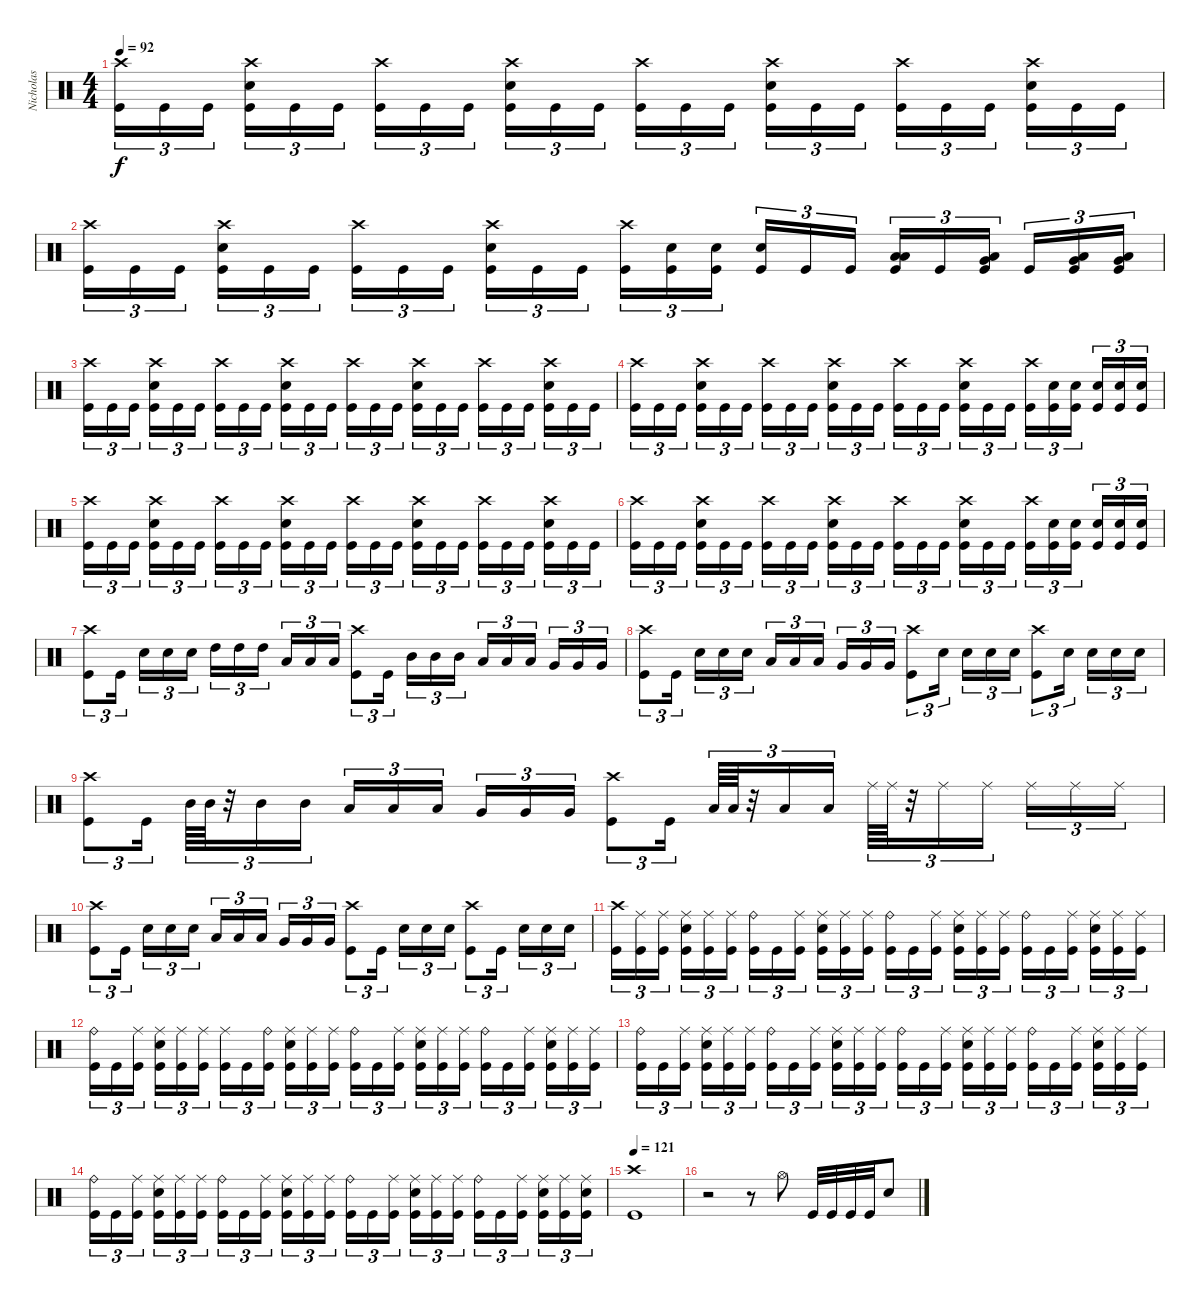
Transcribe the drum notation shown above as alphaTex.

\track ("Nicholas" "Nicholas") {instrument percussion}
\staff {score}
\articulation defaults
\ts (4 4)
\tempo 92
\clef neutral
\ks c
("Crash high (hit)" "Kick (hit)").16{tu (3 2) dy f} "Kick (hit)".16{tu (3 2)} "Kick (hit)".16{tu (3 2)} ("Crash high (hit)" "Electric Snare (hit)" "Kick (hit)").16{tu (3 2)} "Kick (hit)".16{tu (3 2)} "Kick (hit)".16{tu (3 2)} ("Crash high (hit)" "Kick (hit)").16{tu (3 2)} "Kick (hit)".16{tu (3 2)} "Kick (hit)".16{tu (3 2)} ("Crash high (hit)" "Electric Snare (hit)" "Kick (hit)").16{tu (3 2)} "Kick (hit)".16{tu (3 2)} "Kick (hit)".16{tu (3 2)} ("Crash high (hit)" "Kick (hit)").16{tu (3 2)} "Kick (hit)".16{tu (3 2)} "Kick (hit)".16{tu (3 2)} ("Crash high (hit)" "Electric Snare (hit)" "Kick (hit)").16{tu (3 2)} "Kick (hit)".16{tu (3 2)} "Kick (hit)".16{tu (3 2)} ("Crash high (hit)" "Kick (hit)").16{tu (3 2)} "Kick (hit)".16{tu (3 2)} "Kick (hit)".16{tu (3 2)} ("Crash high (hit)" "Electric Snare (hit)" "Kick (hit)").16{tu (3 2)} "Kick (hit)".16{tu (3 2)} "Kick (hit)".16{tu (3 2)} |
("Crash high (hit)" "Kick (hit)").16{tu (3 2)} "Kick (hit)".16{tu (3 2)} "Kick (hit)".16{tu (3 2)} ("Crash high (hit)" "Electric Snare (hit)" "Kick (hit)").16{tu (3 2)} "Kick (hit)".16{tu (3 2)} "Kick (hit)".16{tu (3 2)} ("Crash high (hit)" "Kick (hit)").16{tu (3 2)} "Kick (hit)".16{tu (3 2)} "Kick (hit)".16{tu (3 2)} ("Crash high (hit)" "Electric Snare (hit)" "Kick (hit)").16{tu (3 2)} "Kick (hit)".16{tu (3 2)} "Kick (hit)".16{tu (3 2)} ("Crash high (hit)" "Kick (hit)").16{tu (3 2)} ("Electric Snare (hit)" "Kick (hit)").16{tu (3 2)} ("Electric Snare (hit)" "Kick (hit)").16{tu (3 2)} ("Electric Snare (hit)" "Kick (hit)").16{tu (3 2)} "Kick (hit)".16{tu (3 2)} "Kick (hit)".16{tu (3 2)} ("Low Tom (hit)" "Low Tom (hit)" "Kick (hit)").16{tu (3 2) bd 60} "Kick (hit)".16{tu (3 2)} ("Low Tom (hit)" "Very Low Tom (hit)" "Kick (hit)").16{tu (3 2) bd 60} "Kick (hit)".16{tu (3 2)} ("Low Tom (hit)" "Very Low Tom (hit)" "Kick (hit)").16{tu (3 2) bd 60} ("Low Tom (hit)" "Very Low Tom (hit)" "Kick (hit)").16{tu (3 2) bd 60} |
("Crash high (hit)" "Kick (hit)").16{tu (3 2)} "Kick (hit)".16{tu (3 2)} "Kick (hit)".16{tu (3 2)} ("Crash high (hit)" "Electric Snare (hit)" "Kick (hit)").16{tu (3 2)} "Kick (hit)".16{tu (3 2)} "Kick (hit)".16{tu (3 2)} ("Crash high (hit)" "Kick (hit)").16{tu (3 2)} "Kick (hit)".16{tu (3 2)} "Kick (hit)".16{tu (3 2)} ("Crash high (hit)" "Electric Snare (hit)" "Kick (hit)").16{tu (3 2)} "Kick (hit)".16{tu (3 2)} "Kick (hit)".16{tu (3 2)} ("Crash high (hit)" "Kick (hit)").16{tu (3 2)} "Kick (hit)".16{tu (3 2)} "Kick (hit)".16{tu (3 2)} ("Crash high (hit)" "Electric Snare (hit)" "Kick (hit)").16{tu (3 2)} "Kick (hit)".16{tu (3 2)} "Kick (hit)".16{tu (3 2)} ("Crash high (hit)" "Kick (hit)").16{tu (3 2)} "Kick (hit)".16{tu (3 2)} "Kick (hit)".16{tu (3 2)} ("Crash high (hit)" "Electric Snare (hit)" "Kick (hit)").16{tu (3 2)} "Kick (hit)".16{tu (3 2)} "Kick (hit)".16{tu (3 2)} |
("Crash high (hit)" "Kick (hit)").16{tu (3 2)} "Kick (hit)".16{tu (3 2)} "Kick (hit)".16{tu (3 2)} ("Crash high (hit)" "Electric Snare (hit)" "Kick (hit)").16{tu (3 2)} "Kick (hit)".16{tu (3 2)} "Kick (hit)".16{tu (3 2)} ("Crash high (hit)" "Kick (hit)").16{tu (3 2)} "Kick (hit)".16{tu (3 2)} "Kick (hit)".16{tu (3 2)} ("Crash high (hit)" "Electric Snare (hit)" "Kick (hit)").16{tu (3 2)} "Kick (hit)".16{tu (3 2)} "Kick (hit)".16{tu (3 2)} ("Crash high (hit)" "Kick (hit)").16{tu (3 2)} "Kick (hit)".16{tu (3 2)} "Kick (hit)".16{tu (3 2)} ("Crash high (hit)" "Electric Snare (hit)" "Kick (hit)").16{tu (3 2)} "Kick (hit)".16{tu (3 2)} "Kick (hit)".16{tu (3 2)} ("Crash high (hit)" "Kick (hit)").16{tu (3 2)} ("Electric Snare (hit)" "Kick (hit)").16{tu (3 2)} ("Electric Snare (hit)" "Kick (hit)").16{tu (3 2)} ("Electric Snare (hit)" "Kick (hit)").16{tu (3 2)} ("Electric Snare (hit)" "Kick (hit)").16{tu (3 2)} ("Electric Snare (hit)" "Kick (hit)").16{tu (3 2)} |
("Crash high (hit)" "Kick (hit)").16{tu (3 2)} "Kick (hit)".16{tu (3 2)} "Kick (hit)".16{tu (3 2)} ("Crash high (hit)" "Electric Snare (hit)" "Kick (hit)").16{tu (3 2)} "Kick (hit)".16{tu (3 2)} "Kick (hit)".16{tu (3 2)} ("Crash high (hit)" "Kick (hit)").16{tu (3 2)} "Kick (hit)".16{tu (3 2)} "Kick (hit)".16{tu (3 2)} ("Crash high (hit)" "Electric Snare (hit)" "Kick (hit)").16{tu (3 2)} "Kick (hit)".16{tu (3 2)} "Kick (hit)".16{tu (3 2)} ("Crash high (hit)" "Kick (hit)").16{tu (3 2)} "Kick (hit)".16{tu (3 2)} "Kick (hit)".16{tu (3 2)} ("Crash high (hit)" "Electric Snare (hit)" "Kick (hit)").16{tu (3 2)} "Kick (hit)".16{tu (3 2)} "Kick (hit)".16{tu (3 2)} ("Crash high (hit)" "Kick (hit)").16{tu (3 2)} "Kick (hit)".16{tu (3 2)} "Kick (hit)".16{tu (3 2)} ("Crash high (hit)" "Electric Snare (hit)" "Kick (hit)").16{tu (3 2)} "Kick (hit)".16{tu (3 2)} "Kick (hit)".16{tu (3 2)} |
("Crash high (hit)" "Kick (hit)").16{tu (3 2)} "Kick (hit)".16{tu (3 2)} "Kick (hit)".16{tu (3 2)} ("Crash high (hit)" "Electric Snare (hit)" "Kick (hit)").16{tu (3 2)} "Kick (hit)".16{tu (3 2)} "Kick (hit)".16{tu (3 2)} ("Crash high (hit)" "Kick (hit)").16{tu (3 2)} "Kick (hit)".16{tu (3 2)} "Kick (hit)".16{tu (3 2)} ("Crash high (hit)" "Electric Snare (hit)" "Kick (hit)").16{tu (3 2)} "Kick (hit)".16{tu (3 2)} "Kick (hit)".16{tu (3 2)} ("Crash high (hit)" "Kick (hit)").16{tu (3 2)} "Kick (hit)".16{tu (3 2)} "Kick (hit)".16{tu (3 2)} ("Crash high (hit)" "Electric Snare (hit)" "Kick (hit)").16{tu (3 2)} "Kick (hit)".16{tu (3 2)} "Kick (hit)".16{tu (3 2)} ("Crash high (hit)" "Kick (hit)").16{tu (3 2)} ("Electric Snare (hit)" "Kick (hit)").16{tu (3 2)} ("Electric Snare (hit)" "Kick (hit)").16{tu (3 2)} ("Electric Snare (hit)" "Kick (hit)").16{tu (3 2)} ("Electric Snare (hit)" "Kick (hit)").16{tu (3 2)} ("Electric Snare (hit)" "Kick (hit)").16{tu (3 2)} |
("Crash high (hit)" "Kick (hit)").8{tu (3 2)} "Kick (hit)".16{tu (3 2)} "Electric Snare (hit)".16{tu (3 2)} "Electric Snare (hit)".16{tu (3 2)} "Electric Snare (hit)".16{tu (3 2)} "High Tom (hit)".16{tu (3 2)} "High Tom (hit)".16{tu (3 2)} "High Tom (hit)".16{tu (3 2)} "Low Tom (hit)".16{tu (3 2)} "Low Tom (hit)".16{tu (3 2)} "Low Tom (hit)".16{tu (3 2)} ("Crash high (hit)" "Kick (hit)").8{tu (3 2)} "Kick (hit)".16{tu (3 2)} "Mid Tom (hit)".16{tu (3 2)} "Mid Tom (hit)".16{tu (3 2)} "Mid Tom (hit)".16{tu (3 2)} "Low Tom (hit)".16{tu (3 2)} "Low Tom (hit)".16{tu (3 2)} "Low Tom (hit)".16{tu (3 2)} "Very Low Tom (hit)".16{tu (3 2)} "Very Low Tom (hit)".16{tu (3 2)} "Very Low Tom (hit)".16{tu (3 2)} |
("Crash high (hit)" "Kick (hit)").8{tu (3 2)} "Kick (hit)".16{tu (3 2)} "Electric Snare (hit)".16{tu (3 2)} "Electric Snare (hit)".16{tu (3 2)} "Electric Snare (hit)".16{tu (3 2)} "Low Tom (hit)".16{tu (3 2)} "Low Tom (hit)".16{tu (3 2)} "Low Tom (hit)".16{tu (3 2)} "Very Low Tom (hit)".16{tu (3 2)} "Very Low Tom (hit)".16{tu (3 2)} "Very Low Tom (hit)".16{tu (3 2)} ("Crash high (hit)" "Kick (hit)").8{tu (3 2)} "Electric Snare (hit)".16{tu (3 2)} "Electric Snare (hit)".16{tu (3 2)} "Electric Snare (hit)".16{tu (3 2)} "Electric Snare (hit)".16{tu (3 2)} ("Crash high (hit)" "Kick (hit)").8{tu (3 2)} "Electric Snare (hit)".16{tu (3 2)} "Electric Snare (hit)".16{tu (3 2)} "Electric Snare (hit)".16{tu (3 2)} "Electric Snare (hit)".16{tu (3 2)} |
("Crash high (hit)" "Kick (hit)").8{tu (3 2)} "Kick (hit)".16{tu (3 2)} "Mid Tom (hit)".64{tu (3 2)} "Mid Tom (hit)".64{tu (3 2)} r.32{tu (3 2)} "Mid Tom (hit)".16{tu (3 2)} "Mid Tom (hit)".16{tu (3 2)} "Low Tom (hit)".16{tu (3 2)} "Low Tom (hit)".16{tu (3 2)} "Low Tom (hit)".16{tu (3 2)} "Very Low Tom (hit)".16{tu (3 2)} "Very Low Tom (hit)".16{tu (3 2)} "Very Low Tom (hit)".16{tu (3 2)} ("Crash high (hit)" "Kick (hit)").8{tu (3 2)} "Kick (hit)".16{tu (3 2)} "Low Tom (hit)".64{tu (3 2)} "Low Tom (hit)".64{tu (3 2)} r.32{tu (3 2)} "Low Tom (hit)".16{tu (3 2)} "Low Tom (hit)".16{tu (3 2)} "Ride (middle)".64{tu (3 2)} "Ride (middle)".64{tu (3 2)} r.32{tu (3 2)} "Ride (middle)".16{tu (3 2)} "Ride (middle)".16{tu (3 2)} "Ride (middle)".16{tu (3 2)} "Ride (middle)".16{tu (3 2)} "Ride (middle)".16{tu (3 2)} |
("Crash high (hit)" "Kick (hit)").8{tu (3 2)} "Kick (hit)".16{tu (3 2)} "Electric Snare (hit)".16{tu (3 2)} "Electric Snare (hit)".16{tu (3 2)} "Electric Snare (hit)".16{tu (3 2)} "Low Tom (hit)".16{tu (3 2)} "Low Tom (hit)".16{tu (3 2)} "Low Tom (hit)".16{tu (3 2)} "Very Low Tom (hit)".16{tu (3 2)} "Very Low Tom (hit)".16{tu (3 2)} "Very Low Tom (hit)".16{tu (3 2)} ("Crash high (hit)" "Kick (hit)").8{tu (3 2)} "Kick (hit)".16{tu (3 2)} "Electric Snare (hit)".16{tu (3 2)} "Electric Snare (hit)".16{tu (3 2)} "Electric Snare (hit)".16{tu (3 2)} ("Crash high (hit)" "Kick (hit)").8{tu (3 2)} "Kick (hit)".16{tu (3 2)} "Electric Snare (hit)".16{tu (3 2)} "Electric Snare (hit)".16{tu (3 2)} "Electric Snare (hit)".16{tu (3 2)} |
("Crash high (hit)" "Kick (hit)").16{tu (3 2)} ("Ride (middle)" "Kick (hit)").16{tu (3 2)} ("Ride (middle)" "Kick (hit)").16{tu (3 2)} ("Ride (middle)" "Electric Snare (hit)" "Kick (hit)").16{tu (3 2)} ("Ride (middle)" "Kick (hit)").16{tu (3 2)} ("Ride (middle)" "Kick (hit)").16{tu (3 2)} ("Ride (bell)" "Kick (hit)").16{tu (3 2)} "Kick (hit)".16{tu (3 2)} ("Ride (middle)" "Kick (hit)").16{tu (3 2)} ("Ride (middle)" "Electric Snare (hit)" "Kick (hit)").16{tu (3 2)} ("Ride (middle)" "Kick (hit)").16{tu (3 2)} ("Ride (middle)" "Kick (hit)").16{tu (3 2)} ("Ride (bell)" "Kick (hit)").16{tu (3 2)} "Kick (hit)".16{tu (3 2)} ("Ride (middle)" "Kick (hit)").16{tu (3 2)} ("Ride (middle)" "Electric Snare (hit)" "Kick (hit)").16{tu (3 2)} ("Ride (middle)" "Kick (hit)").16{tu (3 2)} ("Ride (middle)" "Kick (hit)").16{tu (3 2)} ("Ride (bell)" "Kick (hit)").16{tu (3 2)} "Kick (hit)".16{tu (3 2)} ("Ride (middle)" "Kick (hit)").16{tu (3 2)} ("Ride (middle)" "Electric Snare (hit)" "Kick (hit)").16{tu (3 2)} ("Ride (middle)" "Kick (hit)").16{tu (3 2)} ("Ride (middle)" "Kick (hit)").16{tu (3 2)} |
("Ride (bell)" "Kick (hit)").16{tu (3 2)} "Kick (hit)".16{tu (3 2)} ("Ride (middle)" "Kick (hit)").16{tu (3 2)} ("Ride (middle)" "Electric Snare (hit)" "Kick (hit)").16{tu (3 2)} ("Ride (middle)" "Kick (hit)").16{tu (3 2)} ("Ride (middle)" "Kick (hit)").16{tu (3 2)} ("Ride (middle)" "Kick (hit)").16{tu (3 2)} "Kick (hit)".16{tu (3 2)} ("Ride (bell)" "Kick (hit)").16{tu (3 2)} ("Ride (middle)" "Electric Snare (hit)" "Kick (hit)").16{tu (3 2)} ("Ride (middle)" "Kick (hit)").16{tu (3 2)} ("Ride (middle)" "Kick (hit)").16{tu (3 2)} ("Ride (bell)" "Kick (hit)").16{tu (3 2)} "Kick (hit)".16{tu (3 2)} ("Ride (middle)" "Kick (hit)").16{tu (3 2)} ("Ride (middle)" "Electric Snare (hit)" "Kick (hit)").16{tu (3 2)} ("Ride (middle)" "Kick (hit)").16{tu (3 2)} ("Ride (middle)" "Kick (hit)").16{tu (3 2)} ("Ride (bell)" "Kick (hit)").16{tu (3 2)} "Kick (hit)".16{tu (3 2)} ("Ride (middle)" "Kick (hit)").16{tu (3 2)} ("Ride (middle)" "Electric Snare (hit)" "Kick (hit)").16{tu (3 2)} ("Ride (middle)" "Kick (hit)").16{tu (3 2)} ("Ride (middle)" "Kick (hit)").16{tu (3 2)} |
("Ride (bell)" "Kick (hit)").16{tu (3 2)} "Kick (hit)".16{tu (3 2)} ("Ride (middle)" "Kick (hit)").16{tu (3 2)} ("Ride (middle)" "Electric Snare (hit)" "Kick (hit)").16{tu (3 2)} ("Ride (middle)" "Kick (hit)").16{tu (3 2)} ("Ride (middle)" "Kick (hit)").16{tu (3 2)} ("Ride (bell)" "Kick (hit)").16{tu (3 2)} "Kick (hit)".16{tu (3 2)} ("Ride (middle)" "Kick (hit)").16{tu (3 2)} ("Ride (middle)" "Electric Snare (hit)" "Kick (hit)").16{tu (3 2)} ("Ride (middle)" "Kick (hit)").16{tu (3 2)} ("Ride (middle)" "Kick (hit)").16{tu (3 2)} ("Ride (bell)" "Kick (hit)").16{tu (3 2)} "Kick (hit)".16{tu (3 2)} ("Ride (middle)" "Kick (hit)").16{tu (3 2)} ("Ride (middle)" "Electric Snare (hit)" "Kick (hit)").16{tu (3 2)} ("Ride (middle)" "Kick (hit)").16{tu (3 2)} ("Ride (middle)" "Kick (hit)").16{tu (3 2)} ("Ride (bell)" "Kick (hit)").16{tu (3 2)} "Kick (hit)".16{tu (3 2)} ("Ride (middle)" "Kick (hit)").16{tu (3 2)} ("Ride (middle)" "Electric Snare (hit)" "Kick (hit)").16{tu (3 2)} ("Ride (middle)" "Kick (hit)").16{tu (3 2)} ("Ride (middle)" "Kick (hit)").16{tu (3 2)} |
("Ride (bell)" "Kick (hit)").16{tu (3 2)} "Kick (hit)".16{tu (3 2)} ("Ride (middle)" "Kick (hit)").16{tu (3 2)} ("Ride (middle)" "Electric Snare (hit)" "Kick (hit)").16{tu (3 2)} ("Ride (middle)" "Kick (hit)").16{tu (3 2)} ("Ride (middle)" "Kick (hit)").16{tu (3 2)} ("Ride (bell)" "Kick (hit)").16{tu (3 2)} "Kick (hit)".16{tu (3 2)} ("Ride (middle)" "Kick (hit)").16{tu (3 2)} ("Ride (middle)" "Electric Snare (hit)" "Kick (hit)").16{tu (3 2)} ("Ride (middle)" "Kick (hit)").16{tu (3 2)} ("Ride (middle)" "Kick (hit)").16{tu (3 2)} ("Ride (bell)" "Kick (hit)").16{tu (3 2)} "Kick (hit)".16{tu (3 2)} ("Ride (middle)" "Kick (hit)").16{tu (3 2)} ("Ride (middle)" "Electric Snare (hit)" "Kick (hit)").16{tu (3 2)} ("Ride (middle)" "Kick (hit)").16{tu (3 2)} ("Ride (middle)" "Kick (hit)").16{tu (3 2)} ("Ride (bell)" "Kick (hit)").16{tu (3 2)} "Kick (hit)".16{tu (3 2)} ("Ride (middle)" "Kick (hit)").16{tu (3 2)} ("Ride (middle)" "Electric Snare (hit)" "Kick (hit)").16{tu (3 2)} ("Ride (middle)" "Kick (hit)").16{tu (3 2)} ("Ride (middle)" "Electric Snare (hit)" "Kick (hit)").16{tu (3 2)} |
\tempo 121
("Crash high (hit)" "Kick (hit)").1 |
r.2 r.8 "Hi-Hat (open)".8 "Kick (hit)".32 "Kick (hit)".32 "Kick (hit)".32 "Kick (hit)".32 "Electric Snare (hit)".8
